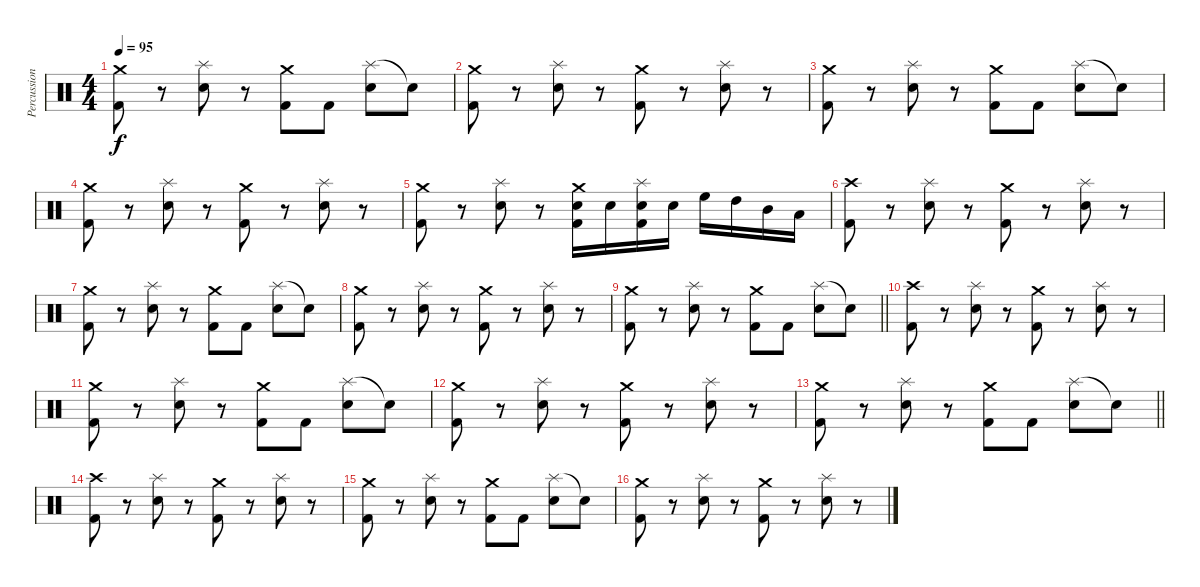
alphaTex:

\track ("Percussion" "Percussion") {instrument percussion}
\staff {score}
\articulation defaults
\ts (4 4)
\tempo 95
\clef neutral
\ks c
("Crash medium (hit)" "Kick (hit) 2").8{dy f} r.8 ("Splash (hit)" "Snare (hit) 2").8 r.8 ("Crash medium (hit)" "Kick (hit) 2").8 "Kick (hit) 2".8 ("Splash (hit)" "Snare (hit) 2").8 "Snare (hit) 2"{t}.8 |
("Crash medium (hit)" "Kick (hit) 2").8 r.8 ("Splash (hit)" "Snare (hit) 2").8 r.8 ("Crash medium (hit)" "Kick (hit) 2").8 r.8 ("Splash (hit)" "Snare (hit) 2").8 r.8 |
("Crash medium (hit)" "Kick (hit) 2").8 r.8 ("Splash (hit)" "Snare (hit) 2").8 r.8 ("Crash medium (hit)" "Kick (hit) 2").8 "Kick (hit) 2".8 ("Splash (hit)" "Snare (hit) 2").8 "Snare (hit) 2"{t}.8 |
("Crash medium (hit)" "Kick (hit) 2").8 r.8 ("Splash (hit)" "Snare (hit) 2").8 r.8 ("Crash medium (hit)" "Kick (hit) 2").8 r.8 ("Splash (hit)" "Snare (hit) 2").8 r.8 |
("Crash medium (hit)" "Kick (hit) 2").8 r.8 ("Splash (hit)" "Snare (hit) 2").8 r.8 ("Crash medium (hit)" "Snare (hit) 2" "Kick (hit) 2").16 "Snare (hit) 2".16 ("Splash (hit)" "Snare (hit) 2" "Kick (hit) 2").16 "Snare (hit) 2".16 "High Floor Tom (hit)".16 "High Tom (hit)".16 "Mid Tom (hit)".16 "Low Tom (hit)".16 |
("Crash high (hit)" "Kick (hit) 2").8 r.8 ("Splash (hit)" "Snare (hit) 2").8 r.8 ("Crash medium (hit)" "Kick (hit) 2").8 r.8 ("Splash (hit)" "Snare (hit) 2").8 r.8 |
("Crash medium (hit)" "Kick (hit) 2").8 r.8 ("Splash (hit)" "Snare (hit) 2").8 r.8 ("Crash medium (hit)" "Kick (hit) 2").8 "Kick (hit) 2".8 ("Splash (hit)" "Snare (hit) 2").8 "Snare (hit) 2"{t}.8 |
("Crash medium (hit)" "Kick (hit) 2").8 r.8 ("Splash (hit)" "Snare (hit) 2").8 r.8 ("Crash medium (hit)" "Kick (hit) 2").8 r.8 ("Splash (hit)" "Snare (hit) 2").8 r.8 |
\barLineRight lightlight
("Crash medium (hit)" "Kick (hit) 2").8 r.8 ("Splash (hit)" "Snare (hit) 2").8 r.8 ("Crash medium (hit)" "Kick (hit) 2").8 "Kick (hit) 2".8 ("Splash (hit)" "Snare (hit) 2").8 "Snare (hit) 2"{t}.8 |
("Crash high (hit)" "Kick (hit) 2").8 r.8 ("Splash (hit)" "Snare (hit) 2").8 r.8 ("Crash medium (hit)" "Kick (hit) 2").8 r.8 ("Splash (hit)" "Snare (hit) 2").8 r.8 |
("Crash medium (hit)" "Kick (hit) 2").8 r.8 ("Splash (hit)" "Snare (hit) 2").8 r.8 ("Crash medium (hit)" "Kick (hit) 2").8 "Kick (hit) 2".8 ("Splash (hit)" "Snare (hit) 2").8 "Snare (hit) 2"{t}.8 |
("Crash medium (hit)" "Kick (hit) 2").8 r.8 ("Splash (hit)" "Snare (hit) 2").8 r.8 ("Crash medium (hit)" "Kick (hit) 2").8 r.8 ("Splash (hit)" "Snare (hit) 2").8 r.8 |
\barLineRight lightlight
("Crash medium (hit)" "Kick (hit) 2").8 r.8 ("Splash (hit)" "Snare (hit) 2").8 r.8 ("Crash medium (hit)" "Kick (hit) 2").8 "Kick (hit) 2".8 ("Splash (hit)" "Snare (hit) 2").8 "Snare (hit) 2"{t}.8 |
("Crash high (hit)" "Kick (hit) 2").8 r.8 ("Splash (hit)" "Snare (hit) 2").8 r.8 ("Crash medium (hit)" "Kick (hit) 2").8 r.8 ("Splash (hit)" "Snare (hit) 2").8 r.8 |
("Crash medium (hit)" "Kick (hit) 2").8 r.8 ("Splash (hit)" "Snare (hit) 2").8 r.8 ("Crash medium (hit)" "Kick (hit) 2").8 "Kick (hit) 2".8 ("Splash (hit)" "Snare (hit) 2").8 "Snare (hit) 2"{t}.8 |
("Crash medium (hit)" "Kick (hit) 2").8 r.8 ("Splash (hit)" "Snare (hit) 2").8 r.8 ("Crash medium (hit)" "Kick (hit) 2").8 r.8 ("Splash (hit)" "Snare (hit) 2").8 r.8
